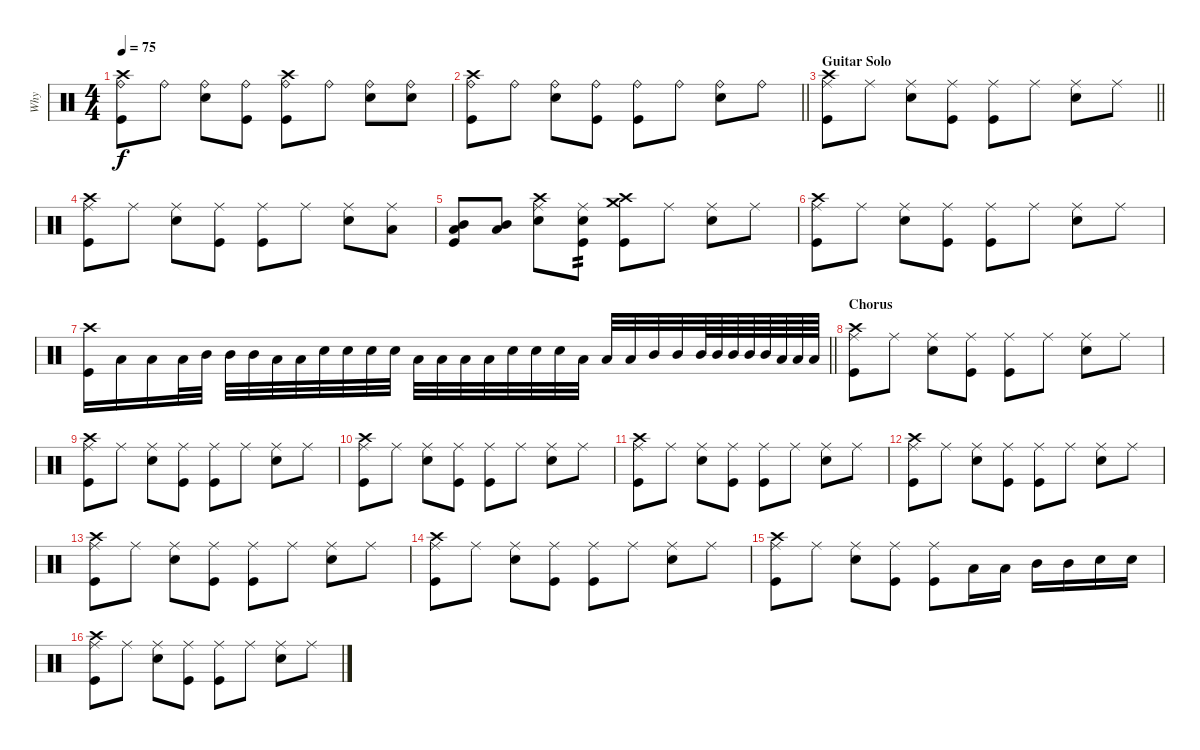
\track ("Why" "Why") {instrument percussion}
\staff {score}
\articulation defaults
\ts (4 4)
\tempo 75
\clef neutral
\ks c
("Crash high (hit)" "Ride (bell)" "Kick (hit)").8{dy f} "Ride (bell)".8 ("Ride (bell)" "Snare (hit) 2").8 ("Ride (bell)" "Kick (hit)").8 ("Crash high (hit)" "Ride (bell)" "Kick (hit)").8 "Ride (bell)".8 ("Ride (bell)" "Snare (hit) 2").8 ("Ride (bell)" "Snare (hit) 2").8 |
\barLineRight lightlight
("Crash high (hit)" "Ride (bell)" "Kick (hit)").8 "Ride (bell)".8 ("Ride (bell)" "Snare (hit) 2").8 ("Ride (bell)" "Kick (hit)").8 ("Ride (bell)" "Kick (hit)").8 "Ride (bell)".8 ("Ride (bell)" "Snare (hit) 2").8 "Ride (bell)".8 |
\section ("" "Guitar Solo")
\barLineRight lightlight
("Crash high (hit)" "Ride (middle)" "Kick (hit)").8 "Ride (middle)".8 ("Ride (middle)" "Snare (hit) 2").8 ("Ride (middle)" "Kick (hit)").8 ("Ride (middle)" "Kick (hit)").8 "Ride (middle)".8 ("Ride (middle)" "Snare (hit) 2").8 "Ride (middle)".8 |
("Crash high (hit)" "Ride (middle)" "Kick (hit)").8 "Ride (middle)".8 ("Ride (middle)" "Snare (hit) 2").8 ("Ride (middle)" "Kick (hit)").8 ("Ride (middle)" "Kick (hit)").8 "Ride (middle)".8 ("Ride (middle)" "Snare (hit) 2").8 ("Ride (middle)" "Low Tom (hit)").8 |
("Low Tom (hit)" "Mid Tom (hit)" "Kick (hit)").8 ("Low Tom (hit)" "Mid Tom (hit)").8 ("Crash high (hit)" "Ride (middle)" "Snare (hit) 2").8 ("Ride (middle)" "Snare (hit) 2" "Kick (hit)").8{tp 2} ("Crash medium (hit)" "Crash high (hit)" "Kick (hit)").8 "Ride (middle)".8 ("Ride (middle)" "Snare (hit) 2").8 "Ride (middle)".8 |
("Crash high (hit)" "Ride (middle)" "Kick (hit)").8 "Ride (middle)".8 ("Ride (middle)" "Snare (hit) 2").8 ("Ride (middle)" "Kick (hit)").8 ("Ride (middle)" "Kick (hit)").8 "Ride (middle)".8 ("Ride (middle)" "Snare (hit) 2").8 "Ride (middle)".8 |
\barLineRight lightlight
("Crash high (hit)" "Kick (hit)").16 "Low Tom (hit)".16 "Low Tom (hit)".16 "Low Tom (hit)".32 "Mid Tom (hit)".32 "Mid Tom (hit)".32 "Mid Tom (hit)".32 "Low Floor Tom (hit)".32 "Low Floor Tom (hit)".32 "Snare (hit) 2".32 "Snare (hit) 2".32 "Snare (hit) 2".32 "Snare (hit) 2".32 "Low Floor Tom (hit)".32 "Low Floor Tom (hit)".32 "Low Tom (hit)".32 "Low Tom (hit)".32 "Snare (hit) 2".32 "Snare (hit) 2".32 "Snare (hit) 2".32 "Low Tom (hit)".32 "Low Tom (hit)".32 "Low Tom (hit)".32 "Mid Tom (hit)".32 "Mid Tom (hit)".32 "Mid Tom (hit)".64 "Mid Tom (hit)".64 "Mid Tom (hit)".64 "Mid Tom (hit)".64 "Mid Tom (hit)".64 "Low Floor Tom (hit)".64 "Low Floor Tom (hit)".64 "Low Floor Tom (hit)".64 |
\section ("" "Chorus")
("Crash high (hit)" "Ride (middle)" "Kick (hit)").8 "Ride (middle)".8 ("Ride (middle)" "Snare (hit) 2").8 ("Ride (middle)" "Kick (hit)").8 ("Ride (middle)" "Kick (hit)").8 "Ride (middle)".8 ("Ride (middle)" "Snare (hit) 2").8 "Ride (middle)".8 |
("Crash high (hit)" "Ride (middle)" "Kick (hit)").8 "Ride (middle)".8 ("Ride (middle)" "Snare (hit) 2").8 ("Ride (middle)" "Kick (hit)").8 ("Ride (middle)" "Kick (hit)").8 "Ride (middle)".8 ("Ride (middle)" "Snare (hit) 2").8 "Ride (middle)".8 |
("Crash high (hit)" "Ride (middle)" "Kick (hit)").8 "Ride (middle)".8 ("Ride (middle)" "Snare (hit) 2").8 ("Ride (middle)" "Kick (hit)").8 ("Ride (middle)" "Kick (hit)").8 "Ride (middle)".8 ("Ride (middle)" "Snare (hit) 2").8 "Ride (middle)".8 |
("Crash high (hit)" "Ride (middle)" "Kick (hit)").8 "Ride (middle)".8 ("Ride (middle)" "Snare (hit) 2").8 ("Ride (middle)" "Kick (hit)").8 ("Ride (middle)" "Kick (hit)").8 "Ride (middle)".8 ("Ride (middle)" "Snare (hit) 2").8 "Ride (middle)".8 |
("Crash high (hit)" "Ride (middle)" "Kick (hit)").8 "Ride (middle)".8 ("Ride (middle)" "Snare (hit) 2").8 ("Ride (middle)" "Kick (hit)").8 ("Ride (middle)" "Kick (hit)").8 "Ride (middle)".8 ("Ride (middle)" "Snare (hit) 2").8 "Ride (middle)".8 |
("Crash high (hit)" "Ride (middle)" "Kick (hit)").8 "Ride (middle)".8 ("Ride (middle)" "Snare (hit) 2").8 ("Ride (middle)" "Kick (hit)").8 ("Ride (middle)" "Kick (hit)").8 "Ride (middle)".8 ("Ride (middle)" "Snare (hit) 2").8 "Ride (middle)".8 |
("Crash high (hit)" "Ride (middle)" "Kick (hit)").8 "Ride (middle)".8 ("Ride (middle)" "Snare (hit) 2").8 ("Ride (middle)" "Kick (hit)").8 ("Ride (middle)" "Kick (hit)").8 "Ride (middle)".8 ("Ride (middle)" "Snare (hit) 2").8 "Ride (middle)".8 |
("Crash high (hit)" "Ride (middle)" "Kick (hit)").8 "Ride (middle)".8 ("Ride (middle)" "Snare (hit) 2").8 ("Ride (middle)" "Kick (hit)").8 ("Ride (middle)" "Kick (hit)").8 "Low Tom (hit)".16 "Low Tom (hit)".16 "Mid Tom (hit)".16 "Mid Tom (hit)".16 "Snare (hit) 2".16 "Snare (hit) 2".16 |
("Crash high (hit)" "Ride (middle)" "Kick (hit)").8 "Ride (middle)".8 ("Ride (middle)" "Snare (hit) 2").8 ("Ride (middle)" "Kick (hit)").8 ("Ride (middle)" "Kick (hit)").8 "Ride (middle)".8 ("Ride (middle)" "Snare (hit) 2").8 "Ride (middle)".8
